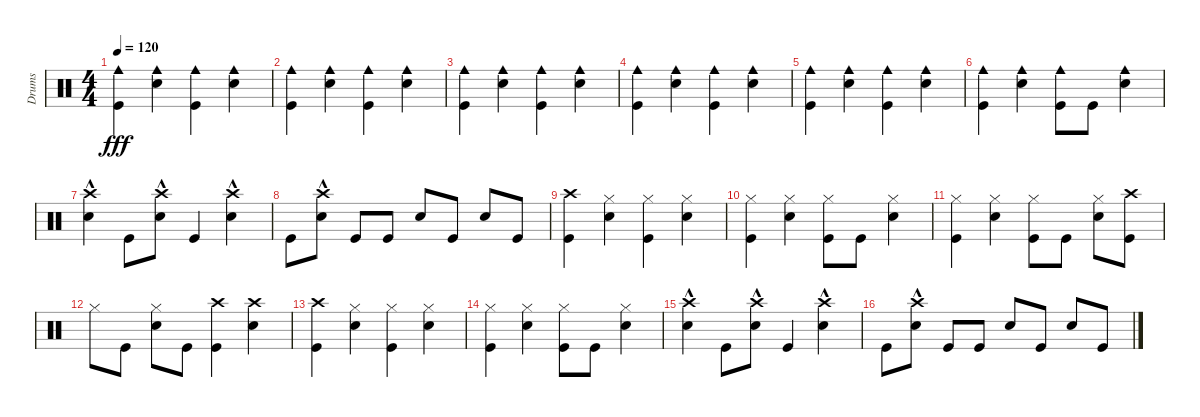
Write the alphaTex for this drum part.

\track ("Drums" "Drums") {instrument percussion}
\staff {score}
\articulation defaults
\ts (4 4)
\tempo 120
\clef neutral
\ks c
("Kick (hit)" "Cowbell medium (hit)").4{dy fff} ("Snare (hit) 2" "Cowbell medium (hit)").4 ("Kick (hit)" "Cowbell medium (hit)").4 ("Snare (hit) 2" "Cowbell medium (hit)").4 |
("Kick (hit)" "Cowbell medium (hit)").4 ("Snare (hit) 2" "Cowbell medium (hit)").4 ("Kick (hit)" "Cowbell medium (hit)").4 ("Snare (hit) 2" "Cowbell medium (hit)").4 |
("Kick (hit)" "Cowbell medium (hit)").4 ("Snare (hit) 2" "Cowbell medium (hit)").4 ("Kick (hit)" "Cowbell medium (hit)").4 ("Snare (hit) 2" "Cowbell medium (hit)").4 |
("Kick (hit)" "Cowbell medium (hit)").4 ("Snare (hit) 2" "Cowbell medium (hit)").4 ("Kick (hit)" "Cowbell medium (hit)").4 ("Snare (hit) 2" "Cowbell medium (hit)").4 |
("Kick (hit)" "Cowbell medium (hit)").4 ("Snare (hit) 2" "Cowbell medium (hit)").4 ("Kick (hit)" "Cowbell medium (hit)").4 ("Snare (hit) 2" "Cowbell medium (hit)").4 |
("Kick (hit)" "Cowbell medium (hit)").4 ("Snare (hit) 2" "Cowbell medium (hit)").4 ("Kick (hit)" "Cowbell medium (hit)").8 "Kick (hit)".8 ("Snare (hit) 2" "Cowbell medium (hit)").4 |
("Snare (hit) 2" "Crash high (hit)"{hac}).4 "Kick (hit)".8 ("Snare (hit) 2" "Crash high (hit)"{hac}).8 "Kick (hit)".4 ("Snare (hit) 2" "Crash high (hit)"{hac}).4 |
"Kick (hit)".8 ("Crash high (hit)"{hac} "Snare (hit) 2").8 "Kick (hit)".8 "Kick (hit)".8 "Snare (hit) 2".8 "Kick (hit)".8 "Snare (hit) 2".8 "Kick (hit)".8 |
("Crash high (hit)" "Kick (hit)").4 ("Hi-Hat (closed)" "Snare (hit) 2").4 ("Hi-Hat (closed)" "Kick (hit)").4 ("Hi-Hat (closed)" "Snare (hit) 2").4 |
("Hi-Hat (closed)" "Kick (hit)").4 ("Hi-Hat (closed)" "Snare (hit) 2").4 ("Hi-Hat (closed)" "Kick (hit)").8 "Kick (hit)".8 ("Hi-Hat (closed)" "Snare (hit) 2").4 |
("Hi-Hat (closed)" "Kick (hit)").4 ("Hi-Hat (closed)" "Snare (hit) 2").4 ("Hi-Hat (closed)" "Kick (hit)").8 "Kick (hit)".8 ("Hi-Hat (closed)" "Snare (hit) 2").8 ("Crash high (hit)" "Kick (hit)").8 |
"Hi-Hat (closed)".8 "Kick (hit)".8 ("Hi-Hat (closed)" "Snare (hit) 2").8 "Kick (hit)".8 ("Crash high (hit)" "Kick (hit)").4 ("Crash high (hit)" "Snare (hit) 2").4 |
("Crash high (hit)" "Kick (hit)").4 ("Snare (hit) 2" "Hi-Hat (closed)").4 ("Hi-Hat (closed)" "Kick (hit)").4 ("Hi-Hat (closed)" "Snare (hit) 2").4 |
("Hi-Hat (closed)" "Kick (hit)").4 ("Hi-Hat (closed)" "Snare (hit) 2").4 ("Hi-Hat (closed)" "Kick (hit)").8 "Kick (hit)".8 ("Hi-Hat (closed)" "Snare (hit) 2").4 |
("Crash high (hit)"{hac} "Snare (hit) 2").4 "Kick (hit)".8 ("Crash high (hit)"{hac} "Snare (hit) 2").8 "Kick (hit)".4 ("Crash high (hit)"{hac} "Snare (hit) 2").4 |
"Kick (hit)".8 ("Crash high (hit)"{hac} "Snare (hit) 2").8 "Kick (hit)".8 "Kick (hit)".8 "Snare (hit) 2".8 "Kick (hit)".8 "Snare (hit) 2".8 "Kick (hit)".8
